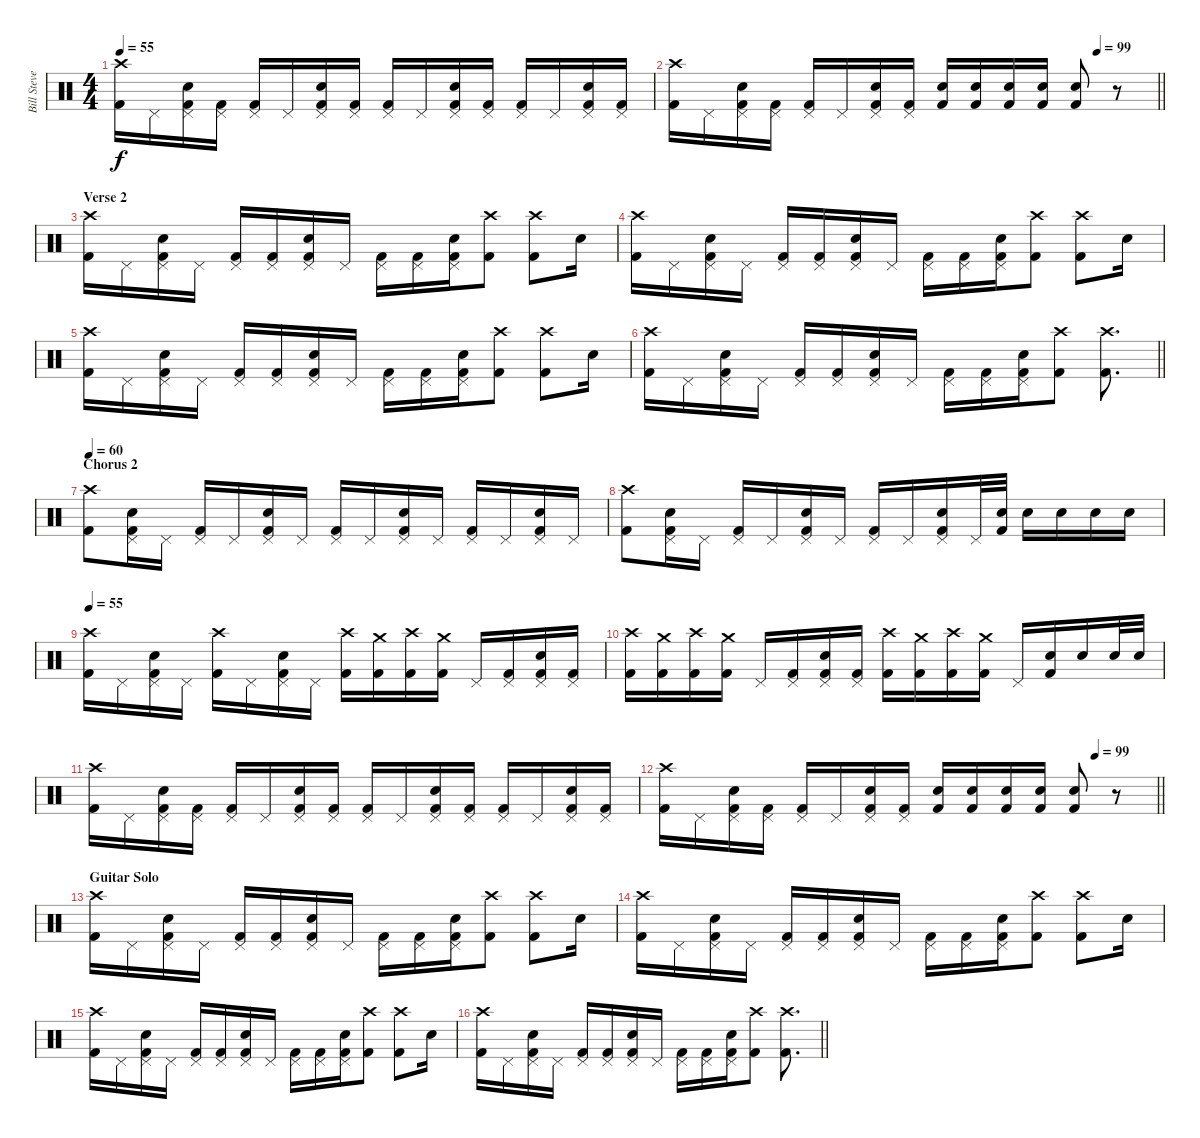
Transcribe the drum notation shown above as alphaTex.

\track ("Bill Stevenson (Drums)" "Bill Steve") {instrument percussion}
\staff {score}
\articulation defaults
\ts (4 4)
\tempo 55
\clef neutral
\ks c
("Kick (hit) 2" "Crash high (hit)").16{dy f} "Pedal Hi-Hat (hit)".16 ("Kick (hit) 2" "Snare (hit) 2" "Pedal Hi-Hat (hit)").16 ("Kick (hit) 2" "Pedal Hi-Hat (hit)").16 ("Kick (hit) 2" "Pedal Hi-Hat (hit)").16 "Pedal Hi-Hat (hit)".16 ("Kick (hit) 2" "Snare (hit) 2" "Pedal Hi-Hat (hit)").16 ("Kick (hit) 2" "Pedal Hi-Hat (hit)").16 ("Kick (hit) 2" "Pedal Hi-Hat (hit)").16 "Pedal Hi-Hat (hit)".16 ("Kick (hit) 2" "Snare (hit) 2" "Pedal Hi-Hat (hit)").16 ("Kick (hit) 2" "Pedal Hi-Hat (hit)").16 ("Kick (hit) 2" "Pedal Hi-Hat (hit)").16 "Pedal Hi-Hat (hit)".16 ("Kick (hit) 2" "Snare (hit) 2" "Pedal Hi-Hat (hit)").16 ("Kick (hit) 2" "Pedal Hi-Hat (hit)").16 |
\tempo (99 0.875)
\barLineRight lightlight
("Kick (hit) 2" "Crash high (hit)").16 "Pedal Hi-Hat (hit)".16 ("Kick (hit) 2" "Snare (hit) 2" "Pedal Hi-Hat (hit)").16 ("Kick (hit) 2" "Pedal Hi-Hat (hit)").16 ("Kick (hit) 2" "Pedal Hi-Hat (hit)").16 "Pedal Hi-Hat (hit)".16 ("Kick (hit) 2" "Snare (hit) 2" "Pedal Hi-Hat (hit)").16 ("Kick (hit) 2" "Pedal Hi-Hat (hit)").16 ("Kick (hit) 2" "Snare (hit) 2").16 ("Kick (hit) 2" "Snare (hit) 2").16 ("Kick (hit) 2" "Snare (hit) 2").16 ("Kick (hit) 2" "Snare (hit) 2").16 ("Kick (hit) 2" "Snare (hit) 2").8 r.8 |
\section ("" "Verse 2")
("Kick (hit) 2" "Crash high (hit)").16 "Pedal Hi-Hat (hit)".16 ("Kick (hit) 2" "Snare (hit) 2" "Pedal Hi-Hat (hit)").16 "Pedal Hi-Hat (hit)".16 ("Kick (hit) 2" "Pedal Hi-Hat (hit)").16 ("Kick (hit) 2" "Pedal Hi-Hat (hit)").16 ("Kick (hit) 2" "Snare (hit) 2" "Pedal Hi-Hat (hit)").16 "Pedal Hi-Hat (hit)".16 ("Kick (hit) 2" "Pedal Hi-Hat (hit)").16 ("Kick (hit) 2" "Pedal Hi-Hat (hit)").16 ("Kick (hit) 2" "Snare (hit) 2" "Pedal Hi-Hat (hit)").16 ("Kick (hit) 2" "Crash high (hit)").8 ("Kick (hit) 2" "Crash high (hit)").8 "Snare (hit) 2".16 |
("Kick (hit) 2" "Crash high (hit)").16 "Pedal Hi-Hat (hit)".16 ("Kick (hit) 2" "Snare (hit) 2" "Pedal Hi-Hat (hit)").16 "Pedal Hi-Hat (hit)".16 ("Kick (hit) 2" "Pedal Hi-Hat (hit)").16 ("Kick (hit) 2" "Pedal Hi-Hat (hit)").16 ("Kick (hit) 2" "Snare (hit) 2" "Pedal Hi-Hat (hit)").16 "Pedal Hi-Hat (hit)".16 ("Kick (hit) 2" "Pedal Hi-Hat (hit)").16 ("Kick (hit) 2" "Pedal Hi-Hat (hit)").16 ("Kick (hit) 2" "Snare (hit) 2" "Pedal Hi-Hat (hit)").16 ("Kick (hit) 2" "Crash high (hit)").8 ("Kick (hit) 2" "Crash high (hit)").8 "Snare (hit) 2".16 |
("Kick (hit) 2" "Crash high (hit)").16 "Pedal Hi-Hat (hit)".16 ("Kick (hit) 2" "Snare (hit) 2" "Pedal Hi-Hat (hit)").16 "Pedal Hi-Hat (hit)".16 ("Kick (hit) 2" "Pedal Hi-Hat (hit)").16 ("Kick (hit) 2" "Pedal Hi-Hat (hit)").16 ("Kick (hit) 2" "Snare (hit) 2" "Pedal Hi-Hat (hit)").16 "Pedal Hi-Hat (hit)".16 ("Kick (hit) 2" "Pedal Hi-Hat (hit)").16 ("Kick (hit) 2" "Pedal Hi-Hat (hit)").16 ("Kick (hit) 2" "Snare (hit) 2" "Pedal Hi-Hat (hit)").16 ("Kick (hit) 2" "Crash high (hit)").8 ("Kick (hit) 2" "Crash high (hit)").8 "Snare (hit) 2".16 |
\barLineRight lightlight
("Kick (hit) 2" "Crash high (hit)").16 "Pedal Hi-Hat (hit)".16 ("Kick (hit) 2" "Snare (hit) 2" "Pedal Hi-Hat (hit)").16 "Pedal Hi-Hat (hit)".16 ("Kick (hit) 2" "Pedal Hi-Hat (hit)").16 ("Kick (hit) 2" "Pedal Hi-Hat (hit)").16 ("Kick (hit) 2" "Snare (hit) 2" "Pedal Hi-Hat (hit)").16 "Pedal Hi-Hat (hit)".16 ("Kick (hit) 2" "Pedal Hi-Hat (hit)").16 ("Kick (hit) 2" "Pedal Hi-Hat (hit)").16 ("Kick (hit) 2" "Snare (hit) 2" "Pedal Hi-Hat (hit)").16 ("Kick (hit) 2" "Crash high (hit)").8 ("Kick (hit) 2" "Crash high (hit)").8{d} |
\section ("" "Chorus 2")
\tempo 60
("Kick (hit) 2" "Crash high (hit)").8 ("Kick (hit) 2" "Snare (hit) 2" "Pedal Hi-Hat (hit)").16 "Pedal Hi-Hat (hit)".16 ("Kick (hit) 2" "Pedal Hi-Hat (hit)").16 "Pedal Hi-Hat (hit)".16 ("Kick (hit) 2" "Snare (hit) 2" "Pedal Hi-Hat (hit)").16 "Pedal Hi-Hat (hit)".16 ("Kick (hit) 2" "Pedal Hi-Hat (hit)").16 "Pedal Hi-Hat (hit)".16 ("Kick (hit) 2" "Snare (hit) 2" "Pedal Hi-Hat (hit)").16 "Pedal Hi-Hat (hit)".16 ("Kick (hit) 2" "Pedal Hi-Hat (hit)").16 "Pedal Hi-Hat (hit)".16 ("Kick (hit) 2" "Snare (hit) 2" "Pedal Hi-Hat (hit)").16 "Pedal Hi-Hat (hit)".16 |
("Kick (hit) 2" "Crash high (hit)").8 ("Kick (hit) 2" "Snare (hit) 2" "Pedal Hi-Hat (hit)").16 "Pedal Hi-Hat (hit)".16 ("Kick (hit) 2" "Pedal Hi-Hat (hit)").16 "Pedal Hi-Hat (hit)".16 ("Kick (hit) 2" "Snare (hit) 2" "Pedal Hi-Hat (hit)").16 "Pedal Hi-Hat (hit)".16 ("Kick (hit) 2" "Pedal Hi-Hat (hit)").16 "Pedal Hi-Hat (hit)".16 ("Kick (hit) 2" "Snare (hit) 2" "Pedal Hi-Hat (hit)").16 "Pedal Hi-Hat (hit)".32 ("Kick (hit) 2" "Snare (hit) 2").32 "Snare (hit) 2".16 "Snare (hit) 2".16 "Snare (hit) 2".16 "Snare (hit) 2".16 |
\tempo 55
("Kick (hit) 2" "Crash high (hit)").16 "Pedal Hi-Hat (hit)".16 ("Kick (hit) 2" "Snare (hit) 2" "Pedal Hi-Hat (hit)").16 "Pedal Hi-Hat (hit)".16 ("Kick (hit) 2" "Crash high (hit)").16 "Pedal Hi-Hat (hit)".16 ("Kick (hit) 2" "Snare (hit) 2" "Pedal Hi-Hat (hit)").16 "Pedal Hi-Hat (hit)".16 ("Kick (hit) 2" "Crash high (hit)").16 ("Kick (hit) 2" "Crash medium (hit)").16 ("Kick (hit) 2" "Crash high (hit)").16 ("Kick (hit) 2" "Crash medium (hit)").16 "Pedal Hi-Hat (hit)".16 ("Kick (hit) 2" "Pedal Hi-Hat (hit)").16 ("Kick (hit) 2" "Snare (hit) 2" "Pedal Hi-Hat (hit)").16 ("Kick (hit) 2" "Pedal Hi-Hat (hit)").16 |
("Kick (hit) 2" "Crash high (hit)").16 ("Kick (hit) 2" "Crash medium (hit)").16 ("Kick (hit) 2" "Crash high (hit)").16 ("Kick (hit) 2" "Crash medium (hit)").16 "Pedal Hi-Hat (hit)".16 ("Kick (hit) 2" "Pedal Hi-Hat (hit)").16 ("Kick (hit) 2" "Snare (hit) 2" "Pedal Hi-Hat (hit)").16 ("Kick (hit) 2" "Pedal Hi-Hat (hit)").16 ("Kick (hit) 2" "Crash high (hit)").16 ("Kick (hit) 2" "Crash medium (hit)").16 ("Kick (hit) 2" "Crash high (hit)").16 ("Kick (hit) 2" "Crash medium (hit)").16 "Pedal Hi-Hat (hit)".16 ("Kick (hit) 2" "Snare (hit) 2").16 "Snare (hit) 2".16 "Snare (hit) 2".32 "Snare (hit) 2".32 |
("Kick (hit) 2" "Crash high (hit)").16 "Pedal Hi-Hat (hit)".16 ("Kick (hit) 2" "Snare (hit) 2" "Pedal Hi-Hat (hit)").16 ("Kick (hit) 2" "Pedal Hi-Hat (hit)").16 ("Kick (hit) 2" "Pedal Hi-Hat (hit)").16 "Pedal Hi-Hat (hit)".16 ("Kick (hit) 2" "Snare (hit) 2" "Pedal Hi-Hat (hit)").16 ("Kick (hit) 2" "Pedal Hi-Hat (hit)").16 ("Kick (hit) 2" "Pedal Hi-Hat (hit)").16 "Pedal Hi-Hat (hit)".16 ("Kick (hit) 2" "Snare (hit) 2" "Pedal Hi-Hat (hit)").16 ("Kick (hit) 2" "Pedal Hi-Hat (hit)").16 ("Kick (hit) 2" "Pedal Hi-Hat (hit)").16 "Pedal Hi-Hat (hit)".16 ("Kick (hit) 2" "Snare (hit) 2" "Pedal Hi-Hat (hit)").16 ("Kick (hit) 2" "Pedal Hi-Hat (hit)").16 |
\tempo (99 0.875)
\barLineRight lightlight
("Kick (hit) 2" "Crash high (hit)").16 "Pedal Hi-Hat (hit)".16 ("Kick (hit) 2" "Snare (hit) 2" "Pedal Hi-Hat (hit)").16 ("Kick (hit) 2" "Pedal Hi-Hat (hit)").16 ("Kick (hit) 2" "Pedal Hi-Hat (hit)").16 "Pedal Hi-Hat (hit)".16 ("Kick (hit) 2" "Snare (hit) 2" "Pedal Hi-Hat (hit)").16 ("Kick (hit) 2" "Pedal Hi-Hat (hit)").16 ("Kick (hit) 2" "Snare (hit) 2").16 ("Kick (hit) 2" "Snare (hit) 2").16 ("Kick (hit) 2" "Snare (hit) 2").16 ("Kick (hit) 2" "Snare (hit) 2").16 ("Kick (hit) 2" "Snare (hit) 2").8 r.8 |
\section ("" "Guitar Solo")
("Kick (hit) 2" "Crash high (hit)").16 "Pedal Hi-Hat (hit)".16 ("Kick (hit) 2" "Snare (hit) 2" "Pedal Hi-Hat (hit)").16 "Pedal Hi-Hat (hit)".16 ("Kick (hit) 2" "Pedal Hi-Hat (hit)").16 ("Kick (hit) 2" "Pedal Hi-Hat (hit)").16 ("Kick (hit) 2" "Snare (hit) 2" "Pedal Hi-Hat (hit)").16 "Pedal Hi-Hat (hit)".16 ("Kick (hit) 2" "Pedal Hi-Hat (hit)").16 ("Kick (hit) 2" "Pedal Hi-Hat (hit)").16 ("Kick (hit) 2" "Snare (hit) 2" "Pedal Hi-Hat (hit)").16 ("Kick (hit) 2" "Crash high (hit)").8 ("Kick (hit) 2" "Crash high (hit)").8 "Snare (hit) 2".16 |
("Kick (hit) 2" "Crash high (hit)").16 "Pedal Hi-Hat (hit)".16 ("Kick (hit) 2" "Snare (hit) 2" "Pedal Hi-Hat (hit)").16 "Pedal Hi-Hat (hit)".16 ("Kick (hit) 2" "Pedal Hi-Hat (hit)").16 ("Kick (hit) 2" "Pedal Hi-Hat (hit)").16 ("Kick (hit) 2" "Snare (hit) 2" "Pedal Hi-Hat (hit)").16 "Pedal Hi-Hat (hit)".16 ("Kick (hit) 2" "Pedal Hi-Hat (hit)").16 ("Kick (hit) 2" "Pedal Hi-Hat (hit)").16 ("Kick (hit) 2" "Snare (hit) 2" "Pedal Hi-Hat (hit)").16 ("Kick (hit) 2" "Crash high (hit)").8 ("Kick (hit) 2" "Crash high (hit)").8 "Snare (hit) 2".16 |
("Kick (hit) 2" "Crash high (hit)").16 "Pedal Hi-Hat (hit)".16 ("Kick (hit) 2" "Snare (hit) 2" "Pedal Hi-Hat (hit)").16 "Pedal Hi-Hat (hit)".16 ("Kick (hit) 2" "Pedal Hi-Hat (hit)").16 ("Kick (hit) 2" "Pedal Hi-Hat (hit)").16 ("Kick (hit) 2" "Snare (hit) 2" "Pedal Hi-Hat (hit)").16 "Pedal Hi-Hat (hit)".16 ("Kick (hit) 2" "Pedal Hi-Hat (hit)").16 ("Kick (hit) 2" "Pedal Hi-Hat (hit)").16 ("Kick (hit) 2" "Snare (hit) 2" "Pedal Hi-Hat (hit)").16 ("Kick (hit) 2" "Crash high (hit)").8 ("Kick (hit) 2" "Crash high (hit)").8 "Snare (hit) 2".16 |
\barLineRight lightlight
("Kick (hit) 2" "Crash high (hit)").16 "Pedal Hi-Hat (hit)".16 ("Kick (hit) 2" "Snare (hit) 2" "Pedal Hi-Hat (hit)").16 "Pedal Hi-Hat (hit)".16 ("Kick (hit) 2" "Pedal Hi-Hat (hit)").16 ("Kick (hit) 2" "Pedal Hi-Hat (hit)").16 ("Kick (hit) 2" "Snare (hit) 2" "Pedal Hi-Hat (hit)").16 "Pedal Hi-Hat (hit)".16 ("Kick (hit) 2" "Pedal Hi-Hat (hit)").16 ("Kick (hit) 2" "Pedal Hi-Hat (hit)").16 ("Kick (hit) 2" "Snare (hit) 2" "Pedal Hi-Hat (hit)").16 ("Kick (hit) 2" "Crash high (hit)").8 ("Kick (hit) 2" "Crash high (hit)").8{d}
